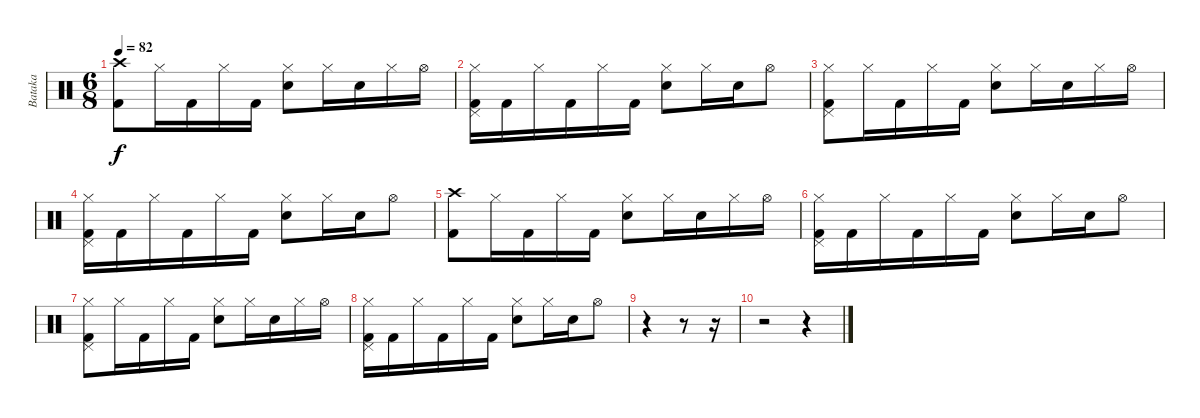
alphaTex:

\track ("Bataka" "Bataka") {instrument percussion}
\staff {score}
\articulation defaults
\ts (6 8)
\tempo 82
\clef neutral
\ks c
("Crash high (hit)" "Kick (hit) 2").8{dy f} "Hi-Hat (closed)".16 "Kick (hit) 2".16 "Hi-Hat (closed)".16 "Kick (hit) 2".16 ("Hi-Hat (closed)" "Snare (hit) 2").8 "Hi-Hat (closed)".16 "Snare (hit) 2".16 "Hi-Hat (closed)".16 "Hi-Hat (open)".16 |
("Hi-Hat (closed)" "Pedal Hi-Hat (hit)" "Kick (hit) 2").16{volume 7} "Kick (hit) 2".16 "Hi-Hat (closed)".16 "Kick (hit) 2".16 "Hi-Hat (closed)".16 "Kick (hit) 2".16 ("Hi-Hat (closed)" "Snare (hit) 2").8 "Hi-Hat (closed)".16 "Snare (hit) 2".16 "Hi-Hat (open)".8 |
("Hi-Hat (closed)" "Pedal Hi-Hat (hit)" "Kick (hit) 2").8 "Hi-Hat (closed)".16 "Kick (hit) 2".16 "Hi-Hat (closed)".16 "Kick (hit) 2".16 ("Hi-Hat (closed)" "Snare (hit) 2").8 "Hi-Hat (closed)".16 "Snare (hit) 2".16 "Hi-Hat (closed)".16 "Hi-Hat (open)".16 |
("Hi-Hat (closed)" "Pedal Hi-Hat (hit)" "Kick (hit) 2").16 "Kick (hit) 2".16 "Hi-Hat (closed)".16 "Kick (hit) 2".16 "Hi-Hat (closed)".16 "Kick (hit) 2".16 ("Hi-Hat (closed)" "Snare (hit) 2").8 "Hi-Hat (closed)".16 "Snare (hit) 2".16 "Hi-Hat (open)".8 |
("Crash high (hit)" "Kick (hit) 2").8 "Hi-Hat (closed)".16 "Kick (hit) 2".16 "Hi-Hat (closed)".16 "Kick (hit) 2".16 ("Hi-Hat (closed)" "Snare (hit) 2").8 "Hi-Hat (closed)".16 "Snare (hit) 2".16 "Hi-Hat (closed)".16 "Hi-Hat (open)".16 |
("Hi-Hat (closed)" "Pedal Hi-Hat (hit)" "Kick (hit) 2").16 "Kick (hit) 2".16 "Hi-Hat (closed)".16 "Kick (hit) 2".16 "Hi-Hat (closed)".16 "Kick (hit) 2".16 ("Hi-Hat (closed)" "Snare (hit) 2").8 "Hi-Hat (closed)".16 "Snare (hit) 2".16 "Hi-Hat (open)".8 |
("Hi-Hat (closed)" "Pedal Hi-Hat (hit)" "Kick (hit) 2").8{volume 0} "Hi-Hat (closed)".16 "Kick (hit) 2".16 "Hi-Hat (closed)".16 "Kick (hit) 2".16 ("Hi-Hat (closed)" "Snare (hit) 2").8 "Hi-Hat (closed)".16 "Snare (hit) 2".16 "Hi-Hat (closed)".16 "Hi-Hat (open)".16 |
("Hi-Hat (closed)" "Pedal Hi-Hat (hit)" "Kick (hit) 2").16 "Kick (hit) 2".16 "Hi-Hat (closed)".16 "Kick (hit) 2".16 "Hi-Hat (closed)".16 "Kick (hit) 2".16 ("Hi-Hat (closed)" "Snare (hit) 2").8 "Hi-Hat (closed)".16 "Snare (hit) 2".16 "Hi-Hat (open)".8 |
r.4 r.8 r.16 |
r.2 r.4
